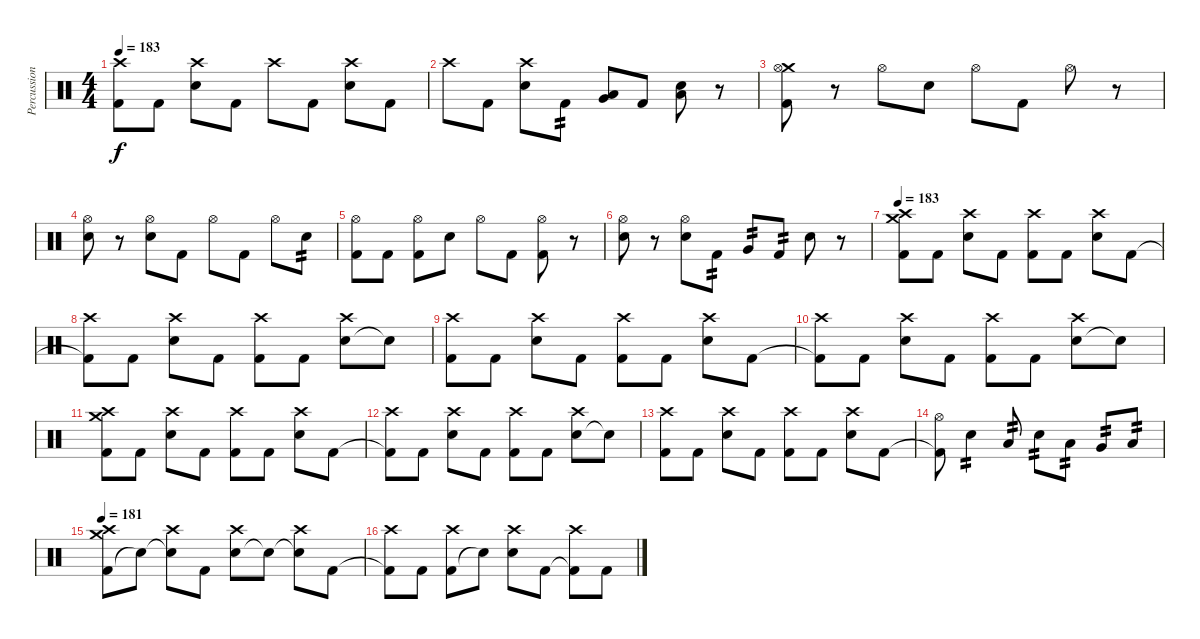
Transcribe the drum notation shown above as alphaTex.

\track ("Percussion" "Percussion") {instrument percussion}
\staff {score}
\articulation defaults
\ts (4 4)
\tempo 183
\clef neutral
\ks c
("Kick (hit) 2" "Crash high (hit)").8{dy f} "Kick (hit) 2".8 ("Snare (hit) 2" "Crash high (hit)").8 "Kick (hit) 2".8 "Crash high (hit)".8 "Kick (hit) 2".8 ("Snare (hit) 2" "Crash high (hit)").8 "Kick (hit) 2".8 |
"Crash high (hit)".8 "Kick (hit) 2".8 ("Snare (hit) 2" "Crash high (hit)").8 "Kick (hit) 2".8{tp 2} ("Low Floor Tom (hit)" "Very Low Tom (hit)").8 "Kick (hit) 2".8 ("Snare (hit) 2" "Low Floor Tom (hit)").8 r.8 |
("Crash medium (hit)" "Hi-Hat (open)" "Kick (hit) 2").8 r.8 "Hi-Hat (open)".8 "Snare (hit) 2".8 "Hi-Hat (open)".8 "Kick (hit) 2".8 "Hi-Hat (open)".8 r.8 |
("Hi-Hat (open)" "Snare (hit) 2").8 r.8 ("Hi-Hat (open)" "Snare (hit) 2").8 "Kick (hit) 2".8 "Hi-Hat (open)".8 "Kick (hit) 2".8 "Hi-Hat (open)".8 "Snare (hit) 2".8{tp 2} |
("Kick (hit) 2" "Hi-Hat (open)").8 "Kick (hit) 2".8 ("Kick (hit) 2" "Hi-Hat (open)").8 "Snare (hit) 2".8 "Hi-Hat (open)".8 "Kick (hit) 2".8 ("Kick (hit) 2" "Hi-Hat (open)").8 r.8 |
("Snare (hit) 2" "Hi-Hat (open)").8 r.8 ("Snare (hit) 2" "Hi-Hat (open)").8 "Kick (hit) 2".8{tp 2} "Very Low Tom (hit)".8{tp 2} "Kick (hit) 2".8{tp 2} "Snare (hit) 2".8 r.8 |
\tempo 183
("Kick (hit) 2" "Crash high (hit)" "Crash medium (hit)").8 "Kick (hit) 2".8 ("Snare (hit) 2" "Crash high (hit)").8 "Kick (hit) 2".8 ("Kick (hit) 2" "Crash high (hit)").8 "Kick (hit) 2".8 ("Snare (hit) 2" "Crash high (hit)").8 "Kick (hit) 2".8 |
("Kick (hit) 2"{t} "Crash high (hit)").8 "Kick (hit) 2".8 ("Snare (hit) 2" "Crash high (hit)").8 "Kick (hit) 2".8 ("Kick (hit) 2" "Crash high (hit)").8 "Kick (hit) 2".8 ("Snare (hit) 2" "Crash high (hit)").8 "Snare (hit)"{t}.8 |
("Kick (hit) 2" "Crash high (hit)").8 "Kick (hit) 2".8 ("Snare (hit) 2" "Crash high (hit)").8 "Kick (hit) 2".8 ("Kick (hit) 2" "Crash high (hit)").8 "Kick (hit) 2".8 ("Snare (hit) 2" "Crash high (hit)").8 "Kick (hit) 2".8 |
("Kick (hit) 2"{t} "Crash high (hit)").8 "Kick (hit) 2".8 ("Snare (hit) 2" "Crash high (hit)").8 "Kick (hit) 2".8 ("Kick (hit) 2" "Crash high (hit)").8 "Kick (hit) 2".8 ("Snare (hit) 2" "Crash high (hit)").8 "Snare (hit)"{t}.8 |
("Kick (hit) 2" "Crash high (hit)" "Crash medium (hit)").8 "Kick (hit) 2".8 ("Snare (hit) 2" "Crash high (hit)").8 "Kick (hit) 2".8 ("Kick (hit) 2" "Crash high (hit)").8 "Kick (hit) 2".8 ("Snare (hit) 2" "Crash high (hit)").8 "Kick (hit) 2".8 |
("Kick (hit) 2"{t} "Crash high (hit)").8 "Kick (hit) 2".8 ("Snare (hit) 2" "Crash high (hit)").8 "Kick (hit) 2".8 ("Kick (hit) 2" "Crash high (hit)").8 "Kick (hit) 2".8 ("Snare (hit) 2" "Crash high (hit)").8 "Snare (hit)"{t}.8 |
("Kick (hit) 2" "Crash high (hit)").8 "Kick (hit) 2".8 ("Snare (hit) 2" "Crash high (hit)").8 "Kick (hit) 2".8 ("Kick (hit) 2" "Crash high (hit)").8 "Kick (hit) 2".8 ("Snare (hit) 2" "Crash high (hit)").8 "Kick (hit) 2".8 |
("Kick (hit) 2"{t} "Hi-Hat (open)").8 "Snare (hit) 2".4{tp 2} "Low Tom (hit)".8{tp 2} "Snare (hit) 2".8{tp 2} "Low Tom (hit)".8{tp 2} "Very Low Tom (hit)".8{tp 2} "Low Floor Tom (hit)".8{tp 2} |
\tempo 181
("Kick (hit) 2" "Crash medium (hit)" "Crash high (hit)").8 "Snare (hit)"{t}.8 ("Snare (hit)"{t} "Crash high (hit)").8 "Kick (hit) 2".8 ("Snare (hit) 2" "Crash high (hit)").8 "Snare (hit)"{t}.8 ("Snare (hit)"{t} "Crash high (hit)").8 "Kick (hit) 2".8 |
("Kick (hit) 2"{t} "Crash high (hit)").8 "Kick (hit) 2".8 ("Kick (hit) 2" "Crash high (hit)").8 "Snare (hit)"{t}.8 ("Snare (hit) 2" "Crash high (hit)").8 "Kick (hit) 2".8 ("Kick (hit) 2"{t} "Crash high (hit)").8 "Kick (hit) 2".8
